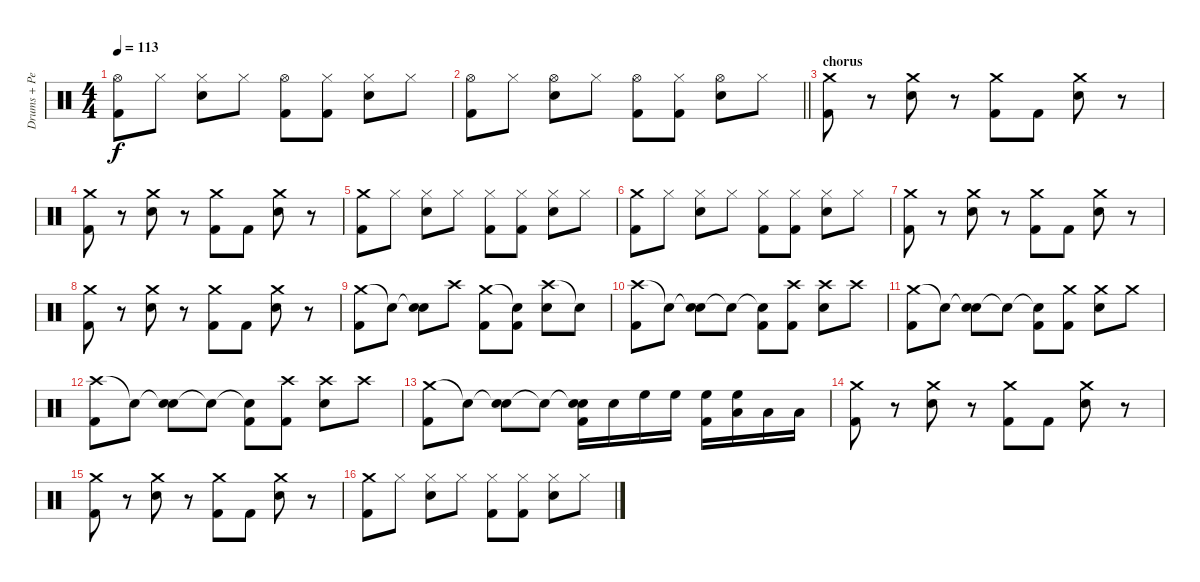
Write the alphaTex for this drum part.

\track ("Drums + Percussion" "Drums + Pe") {instrument percussion}
\staff {score}
\articulation defaults
\ts (4 4)
\tempo 113
\clef neutral
\ks c
("Hi-Hat (open)" "Kick (hit) 2").8{dy f} "Hi-Hat (closed)".8 ("Hi-Hat (closed)" "Snare (hit) 2").8 "Hi-Hat (closed)".8 ("Hi-Hat (open)" "Kick (hit) 2").8 ("Hi-Hat (closed)" "Kick (hit) 2").8 ("Hi-Hat (closed)" "Snare (hit) 2").8 "Hi-Hat (closed)".8 |
\barLineRight lightlight
("Hi-Hat (open)" "Kick (hit) 2").8 "Hi-Hat (closed)".8 ("Hi-Hat (open)" "Snare (hit) 2").8 "Hi-Hat (closed)".8 ("Hi-Hat (open)" "Kick (hit) 2").8 ("Hi-Hat (closed)" "Kick (hit) 2").8 ("Hi-Hat (open)" "Snare (hit) 2").8 "Hi-Hat (closed)".8 |
\section ("" "chorus")
("Crash medium (hit)" "Kick (hit) 2").8 r.8 ("Crash medium (hit)" "Snare (hit) 2").8 r.8 ("Crash medium (hit)" "Kick (hit) 2").8 "Kick (hit) 2".8 ("Crash medium (hit)" "Snare (hit) 2").8 r.8 |
("Crash medium (hit)" "Kick (hit) 2").8 r.8 ("Crash medium (hit)" "Snare (hit) 2").8 r.8 ("Crash medium (hit)" "Kick (hit) 2").8 "Kick (hit) 2".8 ("Crash medium (hit)" "Snare (hit) 2").8 r.8 |
("Crash medium (hit)" "Kick (hit) 2").8 "Hi-Hat (closed)".8 ("Hi-Hat (closed)" "Snare (hit) 2").8 "Hi-Hat (closed)".8 ("Hi-Hat (closed)" "Kick (hit) 2").8 ("Hi-Hat (closed)" "Kick (hit) 2").8 ("Hi-Hat (closed)" "Snare (hit) 2").8 "Hi-Hat (closed)".8 |
("Crash medium (hit)" "Kick (hit) 2").8 "Hi-Hat (closed)".8 ("Hi-Hat (closed)" "Snare (hit) 2").8 "Hi-Hat (closed)".8 ("Hi-Hat (closed)" "Kick (hit) 2").8 ("Hi-Hat (closed)" "Kick (hit) 2").8 ("Hi-Hat (closed)" "Snare (hit) 2").8 "Hi-Hat (closed)".8 |
("Crash medium (hit)" "Kick (hit) 2").8 r.8 ("Crash medium (hit)" "Snare (hit) 2").8 r.8 ("Crash medium (hit)" "Kick (hit) 2").8 "Kick (hit) 2".8 ("Crash medium (hit)" "Snare (hit) 2").8 r.8 |
("Crash medium (hit)" "Kick (hit) 2").8 r.8 ("Crash medium (hit)" "Snare (hit) 2").8 r.8 ("Crash medium (hit)" "Kick (hit) 2").8 "Kick (hit) 2".8 ("Crash medium (hit)" "Snare (hit) 2").8 r.8 |
("Crash medium (hit)" "Kick (hit) 2").8 "Snare (hit)"{t}.8 ("Snare (hit)"{t} "Snare (hit) 2").8 "Crash high (hit)".8 ("Crash medium (hit)" "Kick (hit) 2").8 ("Snare (hit)"{t} "Kick (hit) 2").8 ("Crash high (hit)" "Snare (hit) 2").8 "Snare (hit)"{t}.8 |
("Crash high (hit)" "Kick (hit) 2").8 "Snare (hit)"{t}.8 ("Snare (hit)"{t} "Snare (hit) 2").8 "Snare (hit)"{t}.8 ("Snare (hit)"{t} "Kick (hit) 2").8 ("Crash high (hit)" "Kick (hit) 2").8 ("Crash high (hit)" "Snare (hit) 2").8 "Crash high (hit)".8 |
("Crash medium (hit)" "Kick (hit) 2").8 "Snare (hit)"{t}.8 ("Snare (hit)"{t} "Snare (hit) 2").8 "Snare (hit)"{t}.8 ("Snare (hit)"{t} "Kick (hit) 2").8 ("Crash medium (hit)" "Kick (hit) 2").8 ("Crash medium (hit)" "Snare (hit) 2").8 "Crash medium (hit)".8 |
("Crash high (hit)" "Kick (hit) 2").8 "Snare (hit)"{t}.8 ("Snare (hit)"{t} "Snare (hit) 2").8 "Snare (hit)"{t}.8 ("Snare (hit)"{t} "Kick (hit) 2").8 ("Crash high (hit)" "Kick (hit) 2").8 ("Crash high (hit)" "Snare (hit) 2").8 "Crash high (hit)".8 |
("Crash medium (hit)" "Kick (hit) 2").8 "Snare (hit)"{t}.8 ("Snare (hit)"{t} "Snare (hit) 2").8 "Snare (hit)"{t}.8 ("Snare (hit)"{t} "Snare (hit) 2" "Kick (hit) 2").16 "Snare (hit) 2".16 "High Floor Tom (hit)".16 "High Floor Tom (hit)".16 ("High Floor Tom (hit)" "Kick (hit) 2").16 ("High Floor Tom (hit)" "Low Tom (hit)").16 "Low Tom (hit)".16 "Low Floor Tom (hit)".16 |
("Crash medium (hit)" "Kick (hit) 2").8 r.8 ("Crash medium (hit)" "Snare (hit) 2").8 r.8 ("Crash medium (hit)" "Kick (hit) 2").8 "Kick (hit) 2".8 ("Crash medium (hit)" "Snare (hit) 2").8 r.8 |
("Crash medium (hit)" "Kick (hit) 2").8 r.8 ("Crash medium (hit)" "Snare (hit) 2").8 r.8 ("Crash medium (hit)" "Kick (hit) 2").8 "Kick (hit) 2".8 ("Crash medium (hit)" "Snare (hit) 2").8 r.8 |
("Crash medium (hit)" "Kick (hit) 2").8 "Hi-Hat (closed)".8 ("Hi-Hat (closed)" "Snare (hit) 2").8 "Hi-Hat (closed)".8 ("Hi-Hat (closed)" "Kick (hit) 2").8 ("Hi-Hat (closed)" "Kick (hit) 2").8 ("Hi-Hat (closed)" "Snare (hit) 2").8 "Hi-Hat (closed)".8
